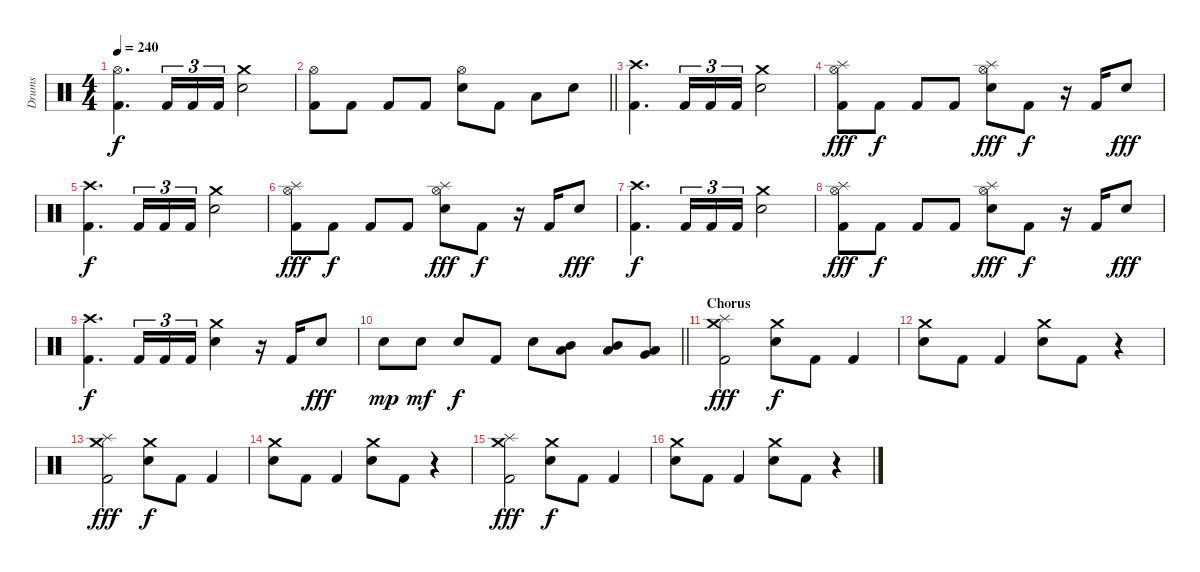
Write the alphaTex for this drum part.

\track ("Drums" "Drums") {instrument percussion}
\staff {score}
\articulation defaults
\ts (4 4)
\tempo 240
\clef neutral
\ks c
("Hi-Hat (open)" "Kick (hit) 2").4{d dy f} "Kick (hit) 2".16{tu (3 2)} "Kick (hit) 2".16{tu (3 2)} "Kick (hit) 2".16{tu (3 2)} ("Crash medium (hit)" "Electric Snare (hit)").2 |
\barLineRight lightlight
("Hi-Hat (open)" "Kick (hit) 2").8 "Kick (hit) 2".8 "Kick (hit) 2".8 "Kick (hit) 2".8 ("Hi-Hat (open)" "Electric Snare (hit)").8 "Kick (hit) 2".8 "Low Tom (hit)".8 "Electric Snare (hit)".8 |
("Crash high (hit)" "Kick (hit) 2").4{d} "Kick (hit) 2".16{tu (3 2)} "Kick (hit) 2".16{tu (3 2)} "Kick (hit) 2".16{tu (3 2)} ("Crash medium (hit)" "Electric Snare (hit)").2 |
("Splash (hit)" "Hi-Hat (open)" "Kick (hit) 2").8{dy fff} "Kick (hit) 2".8{dy f} "Kick (hit) 2".8 "Kick (hit) 2".8 ("Splash (hit)" "Hi-Hat (open)" "Electric Snare (hit)").8{dy fff} "Kick (hit) 2".8{dy f} r.16 "Kick (hit) 2".16 "Electric Snare (hit)".8{dy fff} |
("Crash high (hit)" "Kick (hit) 2").4{d dy f} "Kick (hit) 2".16{tu (3 2)} "Kick (hit) 2".16{tu (3 2)} "Kick (hit) 2".16{tu (3 2)} ("Crash medium (hit)" "Electric Snare (hit)").2 |
("Splash (hit)" "Hi-Hat (open)" "Kick (hit) 2").8{dy fff} "Kick (hit) 2".8{dy f} "Kick (hit) 2".8 "Kick (hit) 2".8 ("Splash (hit)" "Hi-Hat (open)" "Electric Snare (hit)").8{dy fff} "Kick (hit) 2".8{dy f} r.16 "Kick (hit) 2".16 "Electric Snare (hit)".8{dy fff} |
("Crash high (hit)" "Kick (hit) 2").4{d dy f} "Kick (hit) 2".16{tu (3 2)} "Kick (hit) 2".16{tu (3 2)} "Kick (hit) 2".16{tu (3 2)} ("Crash medium (hit)" "Electric Snare (hit)").2 |
("Splash (hit)" "Hi-Hat (open)" "Kick (hit) 2").8{dy fff} "Kick (hit) 2".8{dy f} "Kick (hit) 2".8 "Kick (hit) 2".8 ("Splash (hit)" "Hi-Hat (open)" "Electric Snare (hit)").8{dy fff} "Kick (hit) 2".8{dy f} r.16 "Kick (hit) 2".16 "Electric Snare (hit)".8{dy fff} |
("Crash high (hit)" "Kick (hit) 2").4{d dy f} "Kick (hit) 2".16{tu (3 2)} "Kick (hit) 2".16{tu (3 2)} "Kick (hit) 2".16{tu (3 2)} ("Crash medium (hit)" "Electric Snare (hit)").4 r.16 "Kick (hit) 2".16 "Electric Snare (hit)".8{dy fff} |
\barLineRight lightlight "Electric Snare (hit)".8{dy mp} "Electric Snare (hit)".8{dy mf} "Electric Snare (hit)".8{dy f} "Kick (hit) 2".8 "Electric Snare (hit)".8
("Mid Tom (hit)" "Low Tom (hit)").8 ("Mid Tom (hit)" "Low Tom (hit)").8 ("Low Tom (hit)" "Very Low Tom (hit)").8 |
\section ("" "Chorus")
("Splash (hit)" "Crash medium (hit)" "Kick (hit) 2").2{dy fff} ("Crash medium (hit)" "Electric Snare (hit)").8{dy f} "Kick (hit) 2".8 "Kick (hit) 2".4 |
("Crash medium (hit)" "Electric Snare (hit)").8 "Kick (hit) 2".8 "Kick (hit) 2".4 ("Crash medium (hit)" "Electric Snare (hit)").8 "Kick (hit) 2".8 r.4 |
("Splash (hit)" "Crash medium (hit)" "Kick (hit) 2").2{dy fff} ("Crash medium (hit)" "Electric Snare (hit)").8{dy f} "Kick (hit) 2".8 "Kick (hit) 2".4 |
("Crash medium (hit)" "Electric Snare (hit)").8 "Kick (hit) 2".8 "Kick (hit) 2".4 ("Crash medium (hit)" "Electric Snare (hit)").8 "Kick (hit) 2".8 r.4 |
("Splash (hit)" "Crash medium (hit)" "Kick (hit) 2").2{dy fff} ("Crash medium (hit)" "Electric Snare (hit)").8{dy f} "Kick (hit) 2".8 "Kick (hit) 2".4 |
("Crash medium (hit)" "Electric Snare (hit)").8 "Kick (hit) 2".8 "Kick (hit) 2".4 ("Crash medium (hit)" "Electric Snare (hit)").8 "Kick (hit) 2".8 r.4
